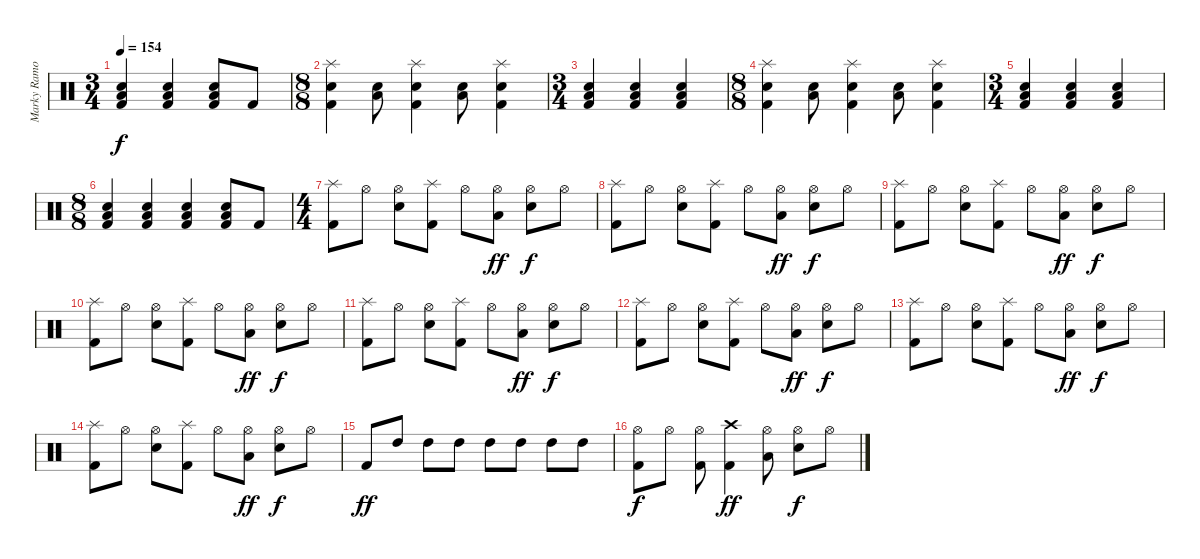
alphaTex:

\track ("Marky Ramone - Drums" "Marky Ramo") {instrument percussion}
\staff {score}
\articulation defaults
\ts (3 4)
\tempo 154
\clef neutral
\ks c
("Low Floor Tom (hit)" "Snare (hit) 2" "Kick (hit) 2").4{dy f} ("Low Floor Tom (hit)" "Snare (hit) 2" "Kick (hit) 2").4 ("Low Floor Tom (hit)" "Snare (hit) 2" "Kick (hit) 2").8 "Kick (hit) 2".8 |
\ts (8 8)
("Splash (hit)" "Snare (hit) 2" "Kick (hit) 2").4 ("Low Floor Tom (hit)" "Snare (hit) 2").8 ("Splash (hit)" "Snare (hit) 2" "Kick (hit) 2").4 ("Low Floor Tom (hit)" "Snare (hit) 2").8 ("Splash (hit)" "Snare (hit) 2" "Kick (hit) 2").4 |
\ts (3 4)
("Low Floor Tom (hit)" "Snare (hit) 2" "Kick (hit) 2").4 ("Low Floor Tom (hit)" "Snare (hit) 2" "Kick (hit) 2").4 ("Low Floor Tom (hit)" "Snare (hit) 2" "Kick (hit) 2").4 |
\ts (8 8)
("Splash (hit)" "Snare (hit) 2" "Kick (hit) 2").4 ("Low Floor Tom (hit)" "Snare (hit) 2").8 ("Splash (hit)" "Snare (hit) 2" "Kick (hit) 2").4 ("Low Floor Tom (hit)" "Snare (hit) 2").8 ("Splash (hit)" "Snare (hit) 2" "Kick (hit) 2").4 |
\ts (3 4)
("Low Floor Tom (hit)" "Snare (hit) 2" "Kick (hit) 2").4 ("Low Floor Tom (hit)" "Snare (hit) 2" "Kick (hit) 2").4 ("Low Floor Tom (hit)" "Snare (hit) 2" "Kick (hit) 2").4 |
\ts (8 8)
("Low Floor Tom (hit)" "Snare (hit) 2" "Kick (hit) 2").4 ("Low Floor Tom (hit)" "Snare (hit) 2" "Kick (hit) 2").4 ("Low Floor Tom (hit)" "Snare (hit) 2" "Kick (hit) 2").4 ("Low Floor Tom (hit)" "Snare (hit) 2" "Kick (hit) 2").8 "Kick (hit) 2".8 |
\ts (4 4)
("Kick (hit) 2" "Splash (hit)").8 "Hi-Hat (open)".8 ("Snare (hit) 2" "Hi-Hat (open)").8 ("Kick (hit) 2" "Splash (hit)").8 "Hi-Hat (open)".8 ("Low Floor Tom (hit)" "Hi-Hat (open)").8{dy ff} ("Snare (hit) 2" "Hi-Hat (open)").8{dy f} "Hi-Hat (open)".8 |
("Kick (hit) 2" "Splash (hit)").8 "Hi-Hat (open)".8 ("Snare (hit) 2" "Hi-Hat (open)").8 ("Kick (hit) 2" "Splash (hit)").8 "Hi-Hat (open)".8 ("Low Floor Tom (hit)" "Hi-Hat (open)").8{dy ff} ("Snare (hit) 2" "Hi-Hat (open)").8{dy f} "Hi-Hat (open)".8 |
("Kick (hit) 2" "Splash (hit)").8 "Hi-Hat (open)".8 ("Snare (hit) 2" "Hi-Hat (open)").8 ("Kick (hit) 2" "Splash (hit)").8 "Hi-Hat (open)".8 ("Low Floor Tom (hit)" "Hi-Hat (open)").8{dy ff} ("Snare (hit) 2" "Hi-Hat (open)").8{dy f} "Hi-Hat (open)".8 |
("Kick (hit) 2" "Splash (hit)").8 "Hi-Hat (open)".8 ("Snare (hit) 2" "Hi-Hat (open)").8 ("Kick (hit) 2" "Splash (hit)").8 "Hi-Hat (open)".8 ("Low Floor Tom (hit)" "Hi-Hat (open)").8{dy ff} ("Snare (hit) 2" "Hi-Hat (open)").8{dy f} "Hi-Hat (open)".8 |
("Kick (hit) 2" "Splash (hit)").8 "Hi-Hat (open)".8 ("Snare (hit) 2" "Hi-Hat (open)").8 ("Kick (hit) 2" "Splash (hit)").8 "Hi-Hat (open)".8 ("Low Floor Tom (hit)" "Hi-Hat (open)").8{dy ff} ("Snare (hit) 2" "Hi-Hat (open)").8{dy f} "Hi-Hat (open)".8 |
("Kick (hit) 2" "Splash (hit)").8 "Hi-Hat (open)".8 ("Snare (hit) 2" "Hi-Hat (open)").8 ("Kick (hit) 2" "Splash (hit)").8 "Hi-Hat (open)".8 ("Low Floor Tom (hit)" "Hi-Hat (open)").8{dy ff} ("Snare (hit) 2" "Hi-Hat (open)").8{dy f} "Hi-Hat (open)".8 |
("Kick (hit) 2" "Splash (hit)").8 "Hi-Hat (open)".8 ("Snare (hit) 2" "Hi-Hat (open)").8 ("Kick (hit) 2" "Splash (hit)").8 "Hi-Hat (open)".8 ("Low Floor Tom (hit)" "Hi-Hat (open)").8{dy ff} ("Snare (hit) 2" "Hi-Hat (open)").8{dy f} "Hi-Hat (open)".8 |
("Kick (hit) 2" "Splash (hit)").8 "Hi-Hat (open)".8 ("Snare (hit) 2" "Hi-Hat (open)").8 ("Kick (hit) 2" "Splash (hit)").8 "Hi-Hat (open)".8 ("Low Floor Tom (hit)" "Hi-Hat (open)").8{dy ff} ("Snare (hit) 2" "Hi-Hat (open)").8{dy f} "Hi-Hat (open)".8 |
"Kick (hit) 2".8{dy ff} "High Tom (hit)".8 "High Tom (hit)".8 "High Tom (hit)".8 "High Tom (hit)".8 "High Tom (hit)".8 "High Tom (hit)".8 "High Tom (hit)".8 |
("Kick (hit) 2" "Hi-Hat (open)").8{dy f} "Hi-Hat (open)".8 ("Kick (hit) 2" "Hi-Hat (open)").8 ("Kick (hit) 2" "Crash high (hit)").4{dy ff} ("Low Floor Tom (hit)" "Hi-Hat (open)").8 ("Snare (hit) 2" "Hi-Hat (open)").8{dy f} "Hi-Hat (open)".8
